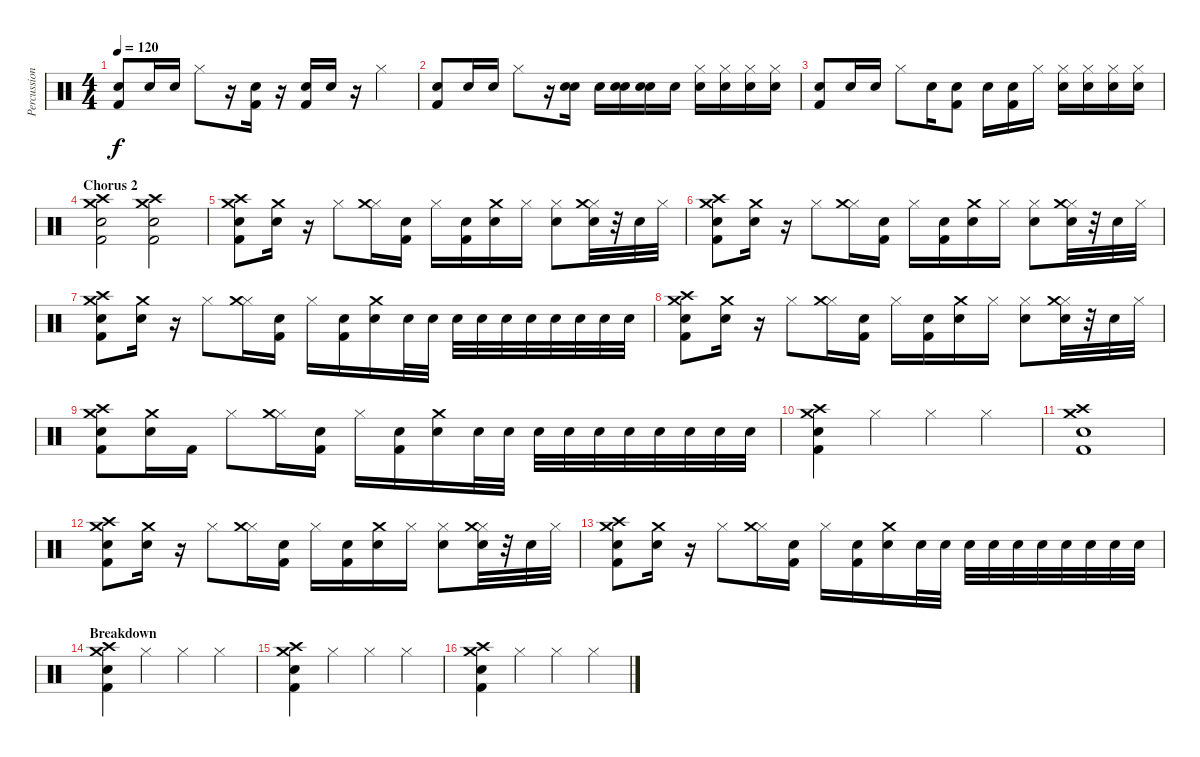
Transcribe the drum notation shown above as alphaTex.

\track ("Percussion" "Percussion") {instrument percussion}
\staff {score}
\articulation defaults
\ts (4 4)
\tempo 120
\clef neutral
\ks c
("Kick (hit) 2" "Electric Snare (hit)").8{dy f} "Electric Snare (hit)".16 "Electric Snare (hit)".16 "Hi-Hat (closed)".8 r.16 ("Kick (hit) 2" "Electric Snare (hit)").16 r.16 ("Kick (hit) 2" "Electric Snare (hit)").16 "Electric Snare (hit)".16 r.16 "Hi-Hat (closed)".4 |
("Kick (hit) 2" "Electric Snare (hit)").8 "Electric Snare (hit)".16 "Electric Snare (hit)".16 "Hi-Hat (closed)".8 r.16 ("Snare (hit) 2" "Electric Snare (hit)").16 "Snare (hit) 2".16 ("Snare (hit) 2" "Electric Snare (hit)").16 ("Snare (hit) 2" "Electric Snare (hit)").16 "Snare (hit) 2".16 ("Snare (hit) 2" "Hi-Hat (closed)").16 ("Snare (hit) 2" "Hi-Hat (closed)").16 ("Snare (hit) 2" "Hi-Hat (closed)").16 ("Snare (hit) 2" "Hi-Hat (closed)").16 |
("Kick (hit) 2" "Electric Snare (hit)").8 "Electric Snare (hit)".16 "Electric Snare (hit)".16 "Hi-Hat (closed)".8 "Electric Snare (hit)".16 ("Kick (hit) 2" "Electric Snare (hit)").8 "Electric Snare (hit)".16 ("Kick (hit) 2" "Electric Snare (hit)").16 "Hi-Hat (closed)".16 ("Hi-Hat (closed)" "Snare (hit) 2").16 ("Hi-Hat (closed)" "Snare (hit) 2").16 ("Hi-Hat (closed)" "Snare (hit) 2").16 ("Hi-Hat (closed)" "Snare (hit) 2").16 |
\section ("" "Chorus 2")
("Kick (hit) 2" "Snare (hit) 2" "Crash high (hit)" "Crash medium (hit)").2 ("Kick (hit) 2" "Snare (hit) 2" "Crash high (hit)" "Crash medium (hit)").2 |
("Kick (hit) 2" "Snare (hit) 2" "Crash high (hit)" "Crash medium (hit)").8 ("Snare (hit) 2" "Crash medium (hit)").16 r.16 "Hi-Hat (closed)".8 ("Hi-Hat (closed)" "Crash medium (hit)").16 ("Kick (hit) 2" "Snare (hit) 2").16 "Hi-Hat (closed)".16 ("Kick (hit) 2" "Snare (hit) 2").16 ("Snare (hit) 2" "Crash medium (hit)").16 "Hi-Hat (closed)".16 ("Hi-Hat (closed)" "Snare (hit) 2").8 ("Snare (hit) 2" "Hi-Hat (closed)" "Crash medium (hit)").32 r.32 "Snare (hit) 2".32 "Hi-Hat (closed)".32 |
("Kick (hit) 2" "Snare (hit) 2" "Crash high (hit)" "Crash medium (hit)").8 ("Snare (hit) 2" "Crash medium (hit)").16 r.16 "Hi-Hat (closed)".8 ("Hi-Hat (closed)" "Crash medium (hit)").16 ("Kick (hit) 2" "Snare (hit) 2").16 "Hi-Hat (closed)".16 ("Kick (hit) 2" "Snare (hit) 2").16 ("Snare (hit) 2" "Crash medium (hit)").16 "Hi-Hat (closed)".16 ("Hi-Hat (closed)" "Snare (hit) 2").8 ("Snare (hit) 2" "Hi-Hat (closed)" "Crash medium (hit)").32 r.32 "Snare (hit) 2".32 "Hi-Hat (closed)".32 |
("Kick (hit) 2" "Snare (hit) 2" "Crash high (hit)" "Crash medium (hit)").8 ("Snare (hit) 2" "Crash medium (hit)").16 r.16 "Hi-Hat (closed)".8 ("Hi-Hat (closed)" "Crash medium (hit)").16 ("Kick (hit) 2" "Snare (hit) 2").16 "Hi-Hat (closed)".16 ("Kick (hit) 2" "Snare (hit) 2").16 ("Snare (hit) 2" "Crash medium (hit)").16 "Snare (hit) 2".32 "Snare (hit) 2".32 "Snare (hit) 2".32 "Snare (hit) 2".32 "Snare (hit) 2".32 "Snare (hit) 2".32 "Snare (hit) 2".32 "Snare (hit) 2".32 "Snare (hit) 2".32 "Snare (hit) 2".32 |
("Kick (hit) 2" "Snare (hit) 2" "Crash high (hit)" "Crash medium (hit)").8 ("Snare (hit) 2" "Crash medium (hit)").16 r.16 "Hi-Hat (closed)".8 ("Hi-Hat (closed)" "Crash medium (hit)").16 ("Kick (hit) 2" "Snare (hit) 2").16 "Hi-Hat (closed)".16 ("Kick (hit) 2" "Snare (hit) 2").16 ("Snare (hit) 2" "Crash medium (hit)").16 "Hi-Hat (closed)".16 ("Hi-Hat (closed)" "Snare (hit) 2").8 ("Snare (hit) 2" "Hi-Hat (closed)" "Crash medium (hit)").32 r.32 "Snare (hit) 2".32 "Hi-Hat (closed)".32 |
("Kick (hit) 2" "Snare (hit) 2" "Crash high (hit)" "Crash medium (hit)").8 ("Snare (hit) 2" "Crash medium (hit)").16 "Kick (hit) 2".16 "Hi-Hat (closed)".8 ("Hi-Hat (closed)" "Crash medium (hit)").16 ("Kick (hit) 2" "Snare (hit) 2").16 "Hi-Hat (closed)".16 ("Kick (hit) 2" "Snare (hit) 2").16 ("Snare (hit) 2" "Crash medium (hit)").16 "Snare (hit) 2".32 "Snare (hit) 2".32 "Snare (hit) 2".32 "Snare (hit) 2".32 "Snare (hit) 2".32 "Snare (hit) 2".32 "Snare (hit) 2".32 "Snare (hit) 2".32 "Snare (hit) 2".32 "Snare (hit) 2".32 |
("Kick (hit) 2" "Snare (hit) 2" "Crash high (hit)" "Crash medium (hit)").4 "Hi-Hat (closed)".4 "Hi-Hat (closed)".4 "Hi-Hat (closed)".4 |
("Kick (hit) 2" "Snare (hit) 2" "Crash high (hit)" "Crash medium (hit)").1 |
("Kick (hit) 2" "Snare (hit) 2" "Crash high (hit)" "Crash medium (hit)").8 ("Snare (hit) 2" "Crash medium (hit)").16 r.16 "Hi-Hat (closed)".8 ("Hi-Hat (closed)" "Crash medium (hit)").16 ("Kick (hit) 2" "Snare (hit) 2").16 "Hi-Hat (closed)".16 ("Kick (hit) 2" "Snare (hit) 2").16 ("Snare (hit) 2" "Crash medium (hit)").16 "Hi-Hat (closed)".16 ("Hi-Hat (closed)" "Snare (hit) 2").8 ("Snare (hit) 2" "Hi-Hat (closed)" "Crash medium (hit)").32 r.32 "Snare (hit) 2".32 "Hi-Hat (closed)".32 |
("Kick (hit) 2" "Snare (hit) 2" "Crash high (hit)" "Crash medium (hit)").8 ("Snare (hit) 2" "Crash medium (hit)").16 r.16 "Hi-Hat (closed)".8 ("Hi-Hat (closed)" "Crash medium (hit)").16 ("Kick (hit) 2" "Snare (hit) 2").16 "Hi-Hat (closed)".16 ("Kick (hit) 2" "Snare (hit) 2").16 ("Snare (hit) 2" "Crash medium (hit)").16 "Snare (hit) 2".32 "Snare (hit) 2".32 "Snare (hit) 2".32 "Snare (hit) 2".32 "Snare (hit) 2".32 "Snare (hit) 2".32 "Snare (hit) 2".32 "Snare (hit) 2".32 "Snare (hit) 2".32 "Snare (hit) 2".32 |
\section ("" "Breakdown")
("Kick (hit) 2" "Snare (hit) 2" "Crash high (hit)" "Crash medium (hit)").4 "Hi-Hat (closed)".4 "Hi-Hat (closed)".4 "Hi-Hat (closed)".4 |
("Kick (hit) 2" "Snare (hit) 2" "Crash high (hit)" "Crash medium (hit)").4 "Hi-Hat (closed)".4 "Hi-Hat (closed)".4 "Hi-Hat (closed)".4 |
("Kick (hit) 2" "Snare (hit) 2" "Crash high (hit)" "Crash medium (hit)").4 "Hi-Hat (closed)".4 "Hi-Hat (closed)".4 "Hi-Hat (closed)".4
